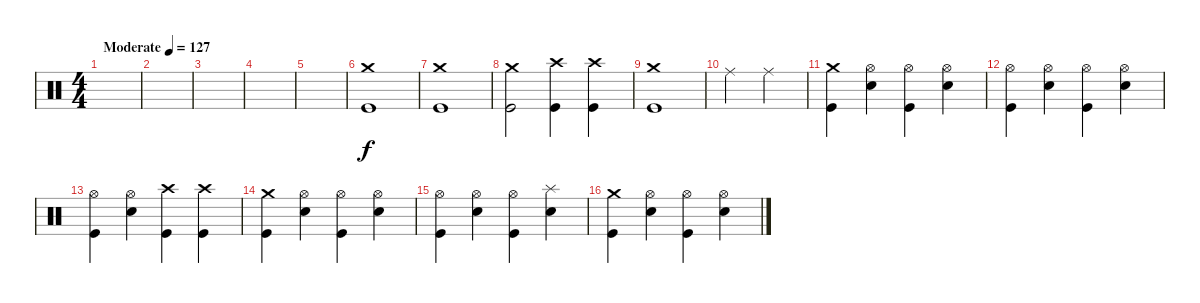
\track "" {instrument percussion}
\staff {score}
\articulation defaults
\ts (4 4)
\tempo (127 "Moderate")
\clef neutral
\ks c
|
|
|
|
|
("Kick (hit)" "Crash medium (hit)").1 |
("Kick (hit)" "Crash medium (hit)").1 |
("Kick (hit)" "Crash medium (hit)").2 ("Crash high (hit)" "Kick (hit)").4 ("Crash high (hit)" "Kick (hit)").4 |
("Kick (hit)" "Crash medium (hit)").1 |
"Ride (middle)".4 "Ride (middle)".4 |
("Kick (hit)" "Crash medium (hit)").4 ("Snare (hit) 2" "Hi-Hat (open)").4 ("Kick (hit)" "Hi-Hat (open)").4 ("Snare (hit) 2" "Hi-Hat (open)").4 |
("Hi-Hat (open)" "Kick (hit)").4 ("Hi-Hat (open)" "Snare (hit) 2").4 ("Hi-Hat (open)" "Kick (hit)").4 ("Snare (hit) 2" "Hi-Hat (open)").4 |
("Kick (hit)" "Hi-Hat (open)").4 ("Snare (hit) 2" "Hi-Hat (open)").4 ("Crash high (hit)" "Kick (hit)").4 ("Crash high (hit)" "Kick (hit)").4 |
("Kick (hit)" "Crash medium (hit)").4 ("Snare (hit) 2" "Hi-Hat (open)").4 ("Kick (hit)" "Hi-Hat (open)").4 ("Snare (hit) 2" "Hi-Hat (open)").4 |
("Hi-Hat (open)" "Kick (hit)").4 ("Hi-Hat (open)" "Snare (hit) 2").4 ("Hi-Hat (open)" "Kick (hit)").4 ("Snare (hit) 2" "Splash (hit)").4 |
("Kick (hit)" "Crash medium (hit)").4 ("Snare (hit) 2" "Hi-Hat (open)").4 ("Kick (hit)" "Hi-Hat (open)").4 ("Snare (hit) 2" "Hi-Hat (open)").4
